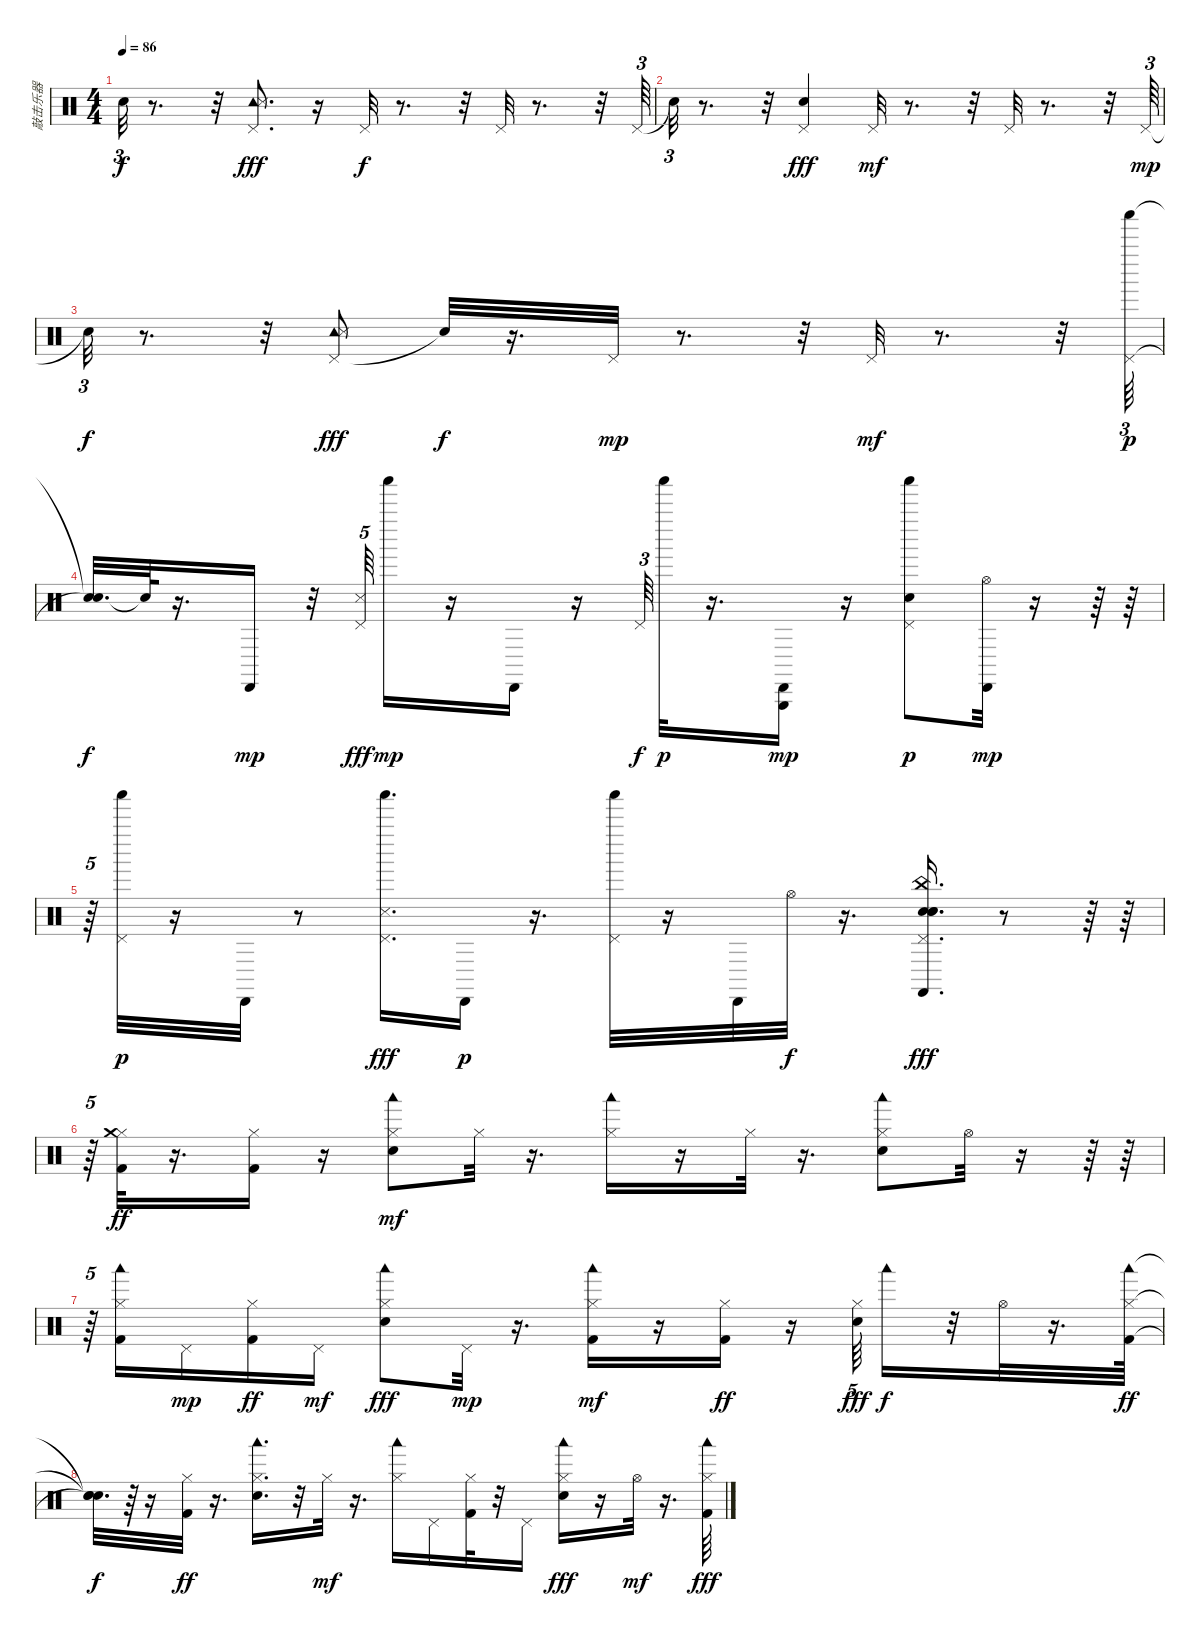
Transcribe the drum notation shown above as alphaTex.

\track ("敲击乐器" "敲击乐器") {instrument percussion}
\staff {score}
\articulation defaults
\ts (4 4)
\tempo 86
\clef neutral
\ks c "Snare (hit)"{t}.32{tu (3 2) dy f}
r.8{d} r.32 ("Pedal Hi-Hat (hit)" "Tambourine (hit)" "Snare (side stick) 3").8{d dy fff} r.16 "Pedal Hi-Hat (hit)".32{dy f} r.8{d} r.32 "Pedal Hi-Hat (hit)".32 r.8{d} r.32 "Pedal Hi-Hat (hit)".64{tu (3 2)} |
"Snare (hit)"{t}.32{tu (3 2)} r.8{d} r.32 ("Pedal Hi-Hat (hit)" "Snare (hit)").4{dy fff} "Pedal Hi-Hat (hit)".32{dy mf} r.8{d} r.32 "Pedal Hi-Hat (hit)".32 r.8{d} r.32 "Pedal Hi-Hat (hit)".64{tu (3 2) dy mp} |
"Snare (hit)"{t}.32{tu (3 2) dy f} r.8{d} r.32 ("Pedal Hi-Hat (hit)" "Tambourine (hit)" "Snare (side stick) 3").8{dy fff} "Snare (hit)"{t}.32{dy f} r.16{d} "Pedal Hi-Hat (hit)".32{dy mp} r.8{d} r.32 "Pedal Hi-Hat (hit)".32{dy mf} r.8{d} r.32 ("Pedal Hi-Hat (hit)" "Shaker (hit)").64{tu (3 2) dy p} |
("Snare (hit)"{t} "Snare (hit)"{t}).32{d dy f} "Snare (hit)"{t}.64 r.16{d} "Cabasa (hit)".16{dy mp} r.32 ("Pedal Hi-Hat (hit)" "Snare (side stick) 3").64{tu (5 4) dy fff} "Shaker (hit)".16{dy mp} r.16 "Cabasa (hit)".16 r.16 "Pedal Hi-Hat (hit)".64{tu (3 2) dy f} "Shaker (hit)".32{dy p} r.16{d} ("Cabasa (hit)" "Triangle (hit)").16{dy mp} r.16 ("Pedal Hi-Hat (hit)" "Snare (hit)" "Shaker (hit)").8{dy p} ("Cabasa (hit)" "Hi-Hat (open)").32{dy mp} r.16 r.64 r.64 |
r.64{tu (5 4)} ("Pedal Hi-Hat (hit)" "Shaker (hit)").32{dy p} r.16 "Cabasa (hit)".32 r.8 ("Shaker (hit)" "Pedal Hi-Hat (hit)" "Snare (side stick) 3").16{d dy fff} "Cabasa (hit)".16{dy p} r.16{d} ("Pedal Hi-Hat (hit)" "Shaker (hit)").32 r.16 "Cabasa (hit)".32 "Hi-Hat (open)".32{dy f} r.16{d} ("Pedal Hi-Hat (hit)" "China (hit)" "Snare (hit)" "Hand Clap (hit)" "Snare (hit)" "Castanets (hit)").16{d dy fff} r.8 r.64 r.64 |
r.64{tu (5 4)} ("Hi-Hat (closed)" "Kick (hit) 2" "Crash medium (hit)").32{dy ff} r.16{d} ("Hi-Hat (closed)" "Kick (hit) 2").16 r.16 ("Hi-Hat (closed)" "Electric Snare (hit)" "Woodblock low (hit)").8{dy mf} "Hi-Hat (closed)".32 r.16{d} ("Woodblock low (hit)" "Hi-Hat (closed)").16 r.16 "Hi-Hat (closed)".32 r.16{d} ("Hi-Hat (closed)" "Electric Snare (hit)" "Woodblock low (hit)").8 "Hi-Hat (open)".32 r.16 r.64 r.64 |
r.64{tu (5 4)} ("Hi-Hat (closed)" "Kick (hit) 2" "Woodblock low (hit)").16 "Pedal Hi-Hat (hit)".16{dy mp} ("Hi-Hat (closed)" "Kick (hit) 2").16{dy ff} "Pedal Hi-Hat (hit)".16{dy mf} ("Hi-Hat (closed)" "Electric Snare (hit)" "Woodblock low (hit)").8{dy fff} "Pedal Hi-Hat (hit)".32{dy mp} r.16{d} ("Hi-Hat (closed)" "Kick (hit) 2" "Woodblock low (hit)").16{dy mf} r.16 ("Hi-Hat (closed)" "Kick (hit) 2").16{dy ff} r.16 ("Hi-Hat (closed)" "Electric Snare (hit)").64{tu (5 4) dy fff} "Woodblock low (hit)".16{dy f} r.32 "Hi-Hat (open)".32 r.16{d} ("Hi-Hat (closed)" "Woodblock low (hit)" "Kick (hit) 2").64{dy ff} |
("Snare (hit)"{t} "Snare (hit)"{t} "Snare (hit)"{t}).32{d dy f} r.64 r.16 ("Hi-Hat (closed)" "Kick (hit) 2").32{dy ff} r.16{d} ("Hi-Hat (closed)" "Electric Snare (hit)" "Woodblock low (hit)").16{d} r.32 "Hi-Hat (closed)".32{dy mf} r.16{d} ("Hi-Hat (closed)" "Woodblock low (hit)").16 "Pedal Hi-Hat (hit)".16 ("Hi-Hat (closed)" "Kick (hit) 2").32 r.32 "Pedal Hi-Hat (hit)".16 ("Hi-Hat (closed)" "Electric Snare (hit)" "Woodblock low (hit)").16{dy fff} r.16 "Hi-Hat (open)".32{dy mf} r.16{d} ("Woodblock low (hit)" "Hi-Hat (closed)" "Kick (hit) 2").64{dy fff}
